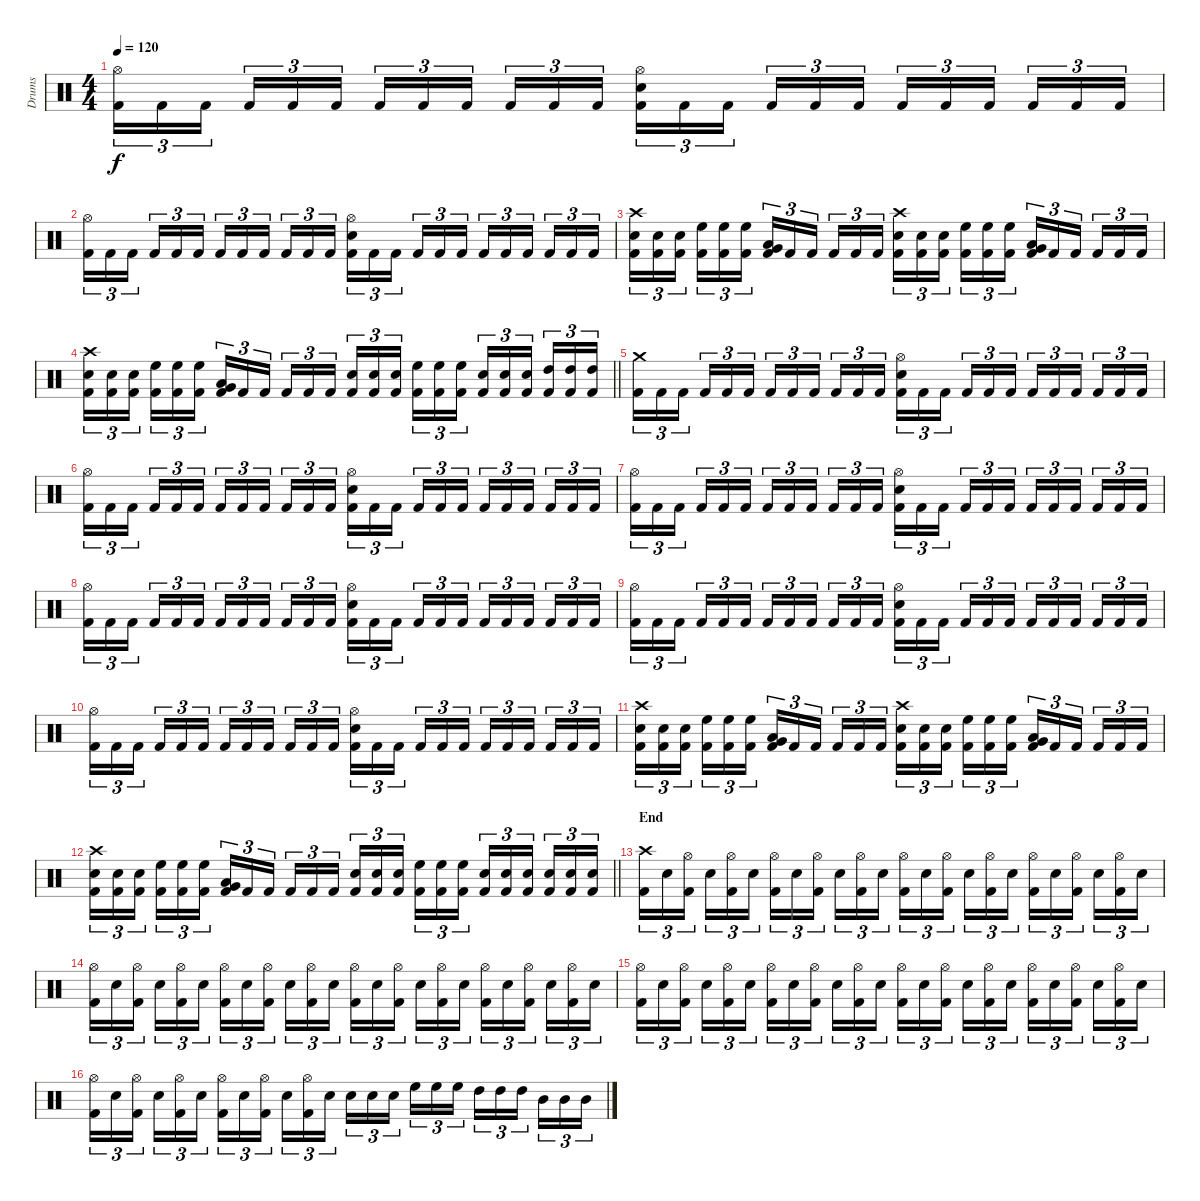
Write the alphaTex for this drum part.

\track ("Drums" "Drums") {instrument percussion}
\staff {score}
\articulation defaults
\ts (4 4)
\tempo 120
\clef neutral
\ks c
("Hi-Hat (open)" "Kick (hit) 2").16{tu (3 2) dy f} "Kick (hit) 2".16{tu (3 2)} "Kick (hit) 2".16{tu (3 2) beam splitsecondary} "Kick (hit) 2".16{tu (3 2)} "Kick (hit) 2".16{tu (3 2)} "Kick (hit) 2".16{tu (3 2)} "Kick (hit) 2".16{tu (3 2)} "Kick (hit) 2".16{tu (3 2)} "Kick (hit) 2".16{tu (3 2) beam splitsecondary} "Kick (hit) 2".16{tu (3 2)} "Kick (hit) 2".16{tu (3 2)} "Kick (hit) 2".16{tu (3 2)} ("Hi-Hat (open)" "Snare (hit) 2" "Kick (hit) 2").16{tu (3 2)} "Kick (hit) 2".16{tu (3 2)} "Kick (hit) 2".16{tu (3 2) beam splitsecondary} "Kick (hit) 2".16{tu (3 2)} "Kick (hit) 2".16{tu (3 2)} "Kick (hit) 2".16{tu (3 2)} "Kick (hit) 2".16{tu (3 2)} "Kick (hit) 2".16{tu (3 2)} "Kick (hit) 2".16{tu (3 2) beam splitsecondary} "Kick (hit) 2".16{tu (3 2)} "Kick (hit) 2".16{tu (3 2)} "Kick (hit) 2".16{tu (3 2)} |
("Hi-Hat (open)" "Kick (hit) 2").16{tu (3 2)} "Kick (hit) 2".16{tu (3 2)} "Kick (hit) 2".16{tu (3 2) beam splitsecondary} "Kick (hit) 2".16{tu (3 2)} "Kick (hit) 2".16{tu (3 2)} "Kick (hit) 2".16{tu (3 2)} "Kick (hit) 2".16{tu (3 2)} "Kick (hit) 2".16{tu (3 2)} "Kick (hit) 2".16{tu (3 2) beam splitsecondary} "Kick (hit) 2".16{tu (3 2)} "Kick (hit) 2".16{tu (3 2)} "Kick (hit) 2".16{tu (3 2)} ("Hi-Hat (open)" "Snare (hit) 2" "Kick (hit) 2").16{tu (3 2)} "Kick (hit) 2".16{tu (3 2)} "Kick (hit) 2".16{tu (3 2) beam splitsecondary} "Kick (hit) 2".16{tu (3 2)} "Kick (hit) 2".16{tu (3 2)} "Kick (hit) 2".16{tu (3 2)} "Kick (hit) 2".16{tu (3 2)} "Kick (hit) 2".16{tu (3 2)} "Kick (hit) 2".16{tu (3 2) beam splitsecondary} "Kick (hit) 2".16{tu (3 2)} "Kick (hit) 2".16{tu (3 2)} "Kick (hit) 2".16{tu (3 2)} |
("Crash high (hit)" "Snare (hit) 2" "Kick (hit) 2").16{tu (3 2)} ("Snare (hit) 2" "Kick (hit) 2").16{tu (3 2)} ("Snare (hit) 2" "Kick (hit) 2").16{tu (3 2) beam splitsecondary} ("High Floor Tom (hit)" "Kick (hit) 2").16{tu (3 2)} ("High Floor Tom (hit)" "Kick (hit) 2").16{tu (3 2)} ("High Floor Tom (hit)" "Kick (hit) 2").16{tu (3 2)} ("Low Tom (hit)" "Very Low Tom (hit)" "Kick (hit) 2").16{tu (3 2)} "Kick (hit) 2".16{tu (3 2)} "Kick (hit) 2".16{tu (3 2) beam splitsecondary} "Kick (hit) 2".16{tu (3 2)} "Kick (hit) 2".16{tu (3 2)} "Kick (hit) 2".16{tu (3 2)} ("Crash high (hit)" "Snare (hit) 2" "Kick (hit) 2").16{tu (3 2)} ("Snare (hit) 2" "Kick (hit) 2").16{tu (3 2)} ("Snare (hit) 2" "Kick (hit) 2").16{tu (3 2) beam splitsecondary} ("High Floor Tom (hit)" "Kick (hit) 2").16{tu (3 2)} ("High Floor Tom (hit)" "Kick (hit) 2").16{tu (3 2)} ("High Floor Tom (hit)" "Kick (hit) 2").16{tu (3 2)} ("Low Tom (hit)" "Very Low Tom (hit)" "Kick (hit) 2").16{tu (3 2)} "Kick (hit) 2".16{tu (3 2)} "Kick (hit) 2".16{tu (3 2) beam splitsecondary} "Kick (hit) 2".16{tu (3 2)} "Kick (hit) 2".16{tu (3 2)} "Kick (hit) 2".16{tu (3 2)} |
\barLineRight lightlight
("Crash high (hit)" "Snare (hit) 2" "Kick (hit) 2").16{tu (3 2)} ("Snare (hit) 2" "Kick (hit) 2").16{tu (3 2)} ("Snare (hit) 2" "Kick (hit) 2").16{tu (3 2) beam splitsecondary} ("High Floor Tom (hit)" "Kick (hit) 2").16{tu (3 2)} ("High Floor Tom (hit)" "Kick (hit) 2").16{tu (3 2)} ("High Floor Tom (hit)" "Kick (hit) 2").16{tu (3 2)} ("Low Tom (hit)" "Very Low Tom (hit)" "Kick (hit) 2").16{tu (3 2)} "Kick (hit) 2".16{tu (3 2)} "Kick (hit) 2".16{tu (3 2) beam splitsecondary} "Kick (hit) 2".16{tu (3 2)} "Kick (hit) 2".16{tu (3 2)} "Kick (hit) 2".16{tu (3 2)} ("Snare (hit) 2" "Kick (hit) 2").16{tu (3 2)} ("Snare (hit) 2" "Kick (hit) 2").16{tu (3 2)} ("Snare (hit) 2" "Kick (hit) 2").16{tu (3 2) beam splitsecondary} ("High Floor Tom (hit)" "Kick (hit) 2").16{tu (3 2)} ("High Floor Tom (hit)" "Kick (hit) 2").16{tu (3 2)} ("High Floor Tom (hit)" "Kick (hit) 2").16{tu (3 2)} ("Snare (hit) 2" "Kick (hit) 2").16{tu (3 2)} ("Snare (hit) 2" "Kick (hit) 2").16{tu (3 2)} ("Snare (hit) 2" "Kick (hit) 2").16{tu (3 2) beam splitsecondary} ("High Tom (hit)" "Kick (hit) 2").16{tu (3 2)} ("High Tom (hit)" "Kick (hit) 2").16{tu (3 2)} ("High Tom (hit)" "Kick (hit) 2").16{tu (3 2)} |
\section ("" "")
("Crash medium (hit)" "Kick (hit) 2").16{tu (3 2)} "Kick (hit) 2".16{tu (3 2)} "Kick (hit) 2".16{tu (3 2) beam splitsecondary} "Kick (hit) 2".16{tu (3 2)} "Kick (hit) 2".16{tu (3 2)} "Kick (hit) 2".16{tu (3 2)} "Kick (hit) 2".16{tu (3 2)} "Kick (hit) 2".16{tu (3 2)} "Kick (hit) 2".16{tu (3 2) beam splitsecondary} "Kick (hit) 2".16{tu (3 2)} "Kick (hit) 2".16{tu (3 2)} "Kick (hit) 2".16{tu (3 2)} ("Hi-Hat (open)" "Snare (hit) 2" "Kick (hit) 2").16{tu (3 2)} "Kick (hit) 2".16{tu (3 2)} "Kick (hit) 2".16{tu (3 2) beam splitsecondary} "Kick (hit) 2".16{tu (3 2)} "Kick (hit) 2".16{tu (3 2)} "Kick (hit) 2".16{tu (3 2)} "Kick (hit) 2".16{tu (3 2)} "Kick (hit) 2".16{tu (3 2)} "Kick (hit) 2".16{tu (3 2) beam splitsecondary} "Kick (hit) 2".16{tu (3 2)} "Kick (hit) 2".16{tu (3 2)} "Kick (hit) 2".16{tu (3 2)} |
("Hi-Hat (open)" "Kick (hit) 2").16{tu (3 2)} "Kick (hit) 2".16{tu (3 2)} "Kick (hit) 2".16{tu (3 2) beam splitsecondary} "Kick (hit) 2".16{tu (3 2)} "Kick (hit) 2".16{tu (3 2)} "Kick (hit) 2".16{tu (3 2)} "Kick (hit) 2".16{tu (3 2)} "Kick (hit) 2".16{tu (3 2)} "Kick (hit) 2".16{tu (3 2) beam splitsecondary} "Kick (hit) 2".16{tu (3 2)} "Kick (hit) 2".16{tu (3 2)} "Kick (hit) 2".16{tu (3 2)} ("Hi-Hat (open)" "Snare (hit) 2" "Kick (hit) 2").16{tu (3 2)} "Kick (hit) 2".16{tu (3 2)} "Kick (hit) 2".16{tu (3 2) beam splitsecondary} "Kick (hit) 2".16{tu (3 2)} "Kick (hit) 2".16{tu (3 2)} "Kick (hit) 2".16{tu (3 2)} "Kick (hit) 2".16{tu (3 2)} "Kick (hit) 2".16{tu (3 2)} "Kick (hit) 2".16{tu (3 2) beam splitsecondary} "Kick (hit) 2".16{tu (3 2)} "Kick (hit) 2".16{tu (3 2)} "Kick (hit) 2".16{tu (3 2)} |
("Hi-Hat (open)" "Kick (hit) 2").16{tu (3 2)} "Kick (hit) 2".16{tu (3 2)} "Kick (hit) 2".16{tu (3 2) beam splitsecondary} "Kick (hit) 2".16{tu (3 2)} "Kick (hit) 2".16{tu (3 2)} "Kick (hit) 2".16{tu (3 2)} "Kick (hit) 2".16{tu (3 2)} "Kick (hit) 2".16{tu (3 2)} "Kick (hit) 2".16{tu (3 2) beam splitsecondary} "Kick (hit) 2".16{tu (3 2)} "Kick (hit) 2".16{tu (3 2)} "Kick (hit) 2".16{tu (3 2)} ("Hi-Hat (open)" "Snare (hit) 2" "Kick (hit) 2").16{tu (3 2)} "Kick (hit) 2".16{tu (3 2)} "Kick (hit) 2".16{tu (3 2) beam splitsecondary} "Kick (hit) 2".16{tu (3 2)} "Kick (hit) 2".16{tu (3 2)} "Kick (hit) 2".16{tu (3 2)} "Kick (hit) 2".16{tu (3 2)} "Kick (hit) 2".16{tu (3 2)} "Kick (hit) 2".16{tu (3 2) beam splitsecondary} "Kick (hit) 2".16{tu (3 2)} "Kick (hit) 2".16{tu (3 2)} "Kick (hit) 2".16{tu (3 2)} |
("Hi-Hat (open)" "Kick (hit) 2").16{tu (3 2)} "Kick (hit) 2".16{tu (3 2)} "Kick (hit) 2".16{tu (3 2) beam splitsecondary} "Kick (hit) 2".16{tu (3 2)} "Kick (hit) 2".16{tu (3 2)} "Kick (hit) 2".16{tu (3 2)} "Kick (hit) 2".16{tu (3 2)} "Kick (hit) 2".16{tu (3 2)} "Kick (hit) 2".16{tu (3 2) beam splitsecondary} "Kick (hit) 2".16{tu (3 2)} "Kick (hit) 2".16{tu (3 2)} "Kick (hit) 2".16{tu (3 2)} ("Hi-Hat (open)" "Snare (hit) 2" "Kick (hit) 2").16{tu (3 2)} "Kick (hit) 2".16{tu (3 2)} "Kick (hit) 2".16{tu (3 2) beam splitsecondary} "Kick (hit) 2".16{tu (3 2)} "Kick (hit) 2".16{tu (3 2)} "Kick (hit) 2".16{tu (3 2)} "Kick (hit) 2".16{tu (3 2)} "Kick (hit) 2".16{tu (3 2)} "Kick (hit) 2".16{tu (3 2) beam splitsecondary} "Kick (hit) 2".16{tu (3 2)} "Kick (hit) 2".16{tu (3 2)} "Kick (hit) 2".16{tu (3 2)} |
("Hi-Hat (open)" "Kick (hit) 2").16{tu (3 2)} "Kick (hit) 2".16{tu (3 2)} "Kick (hit) 2".16{tu (3 2) beam splitsecondary} "Kick (hit) 2".16{tu (3 2)} "Kick (hit) 2".16{tu (3 2)} "Kick (hit) 2".16{tu (3 2)} "Kick (hit) 2".16{tu (3 2)} "Kick (hit) 2".16{tu (3 2)} "Kick (hit) 2".16{tu (3 2) beam splitsecondary} "Kick (hit) 2".16{tu (3 2)} "Kick (hit) 2".16{tu (3 2)} "Kick (hit) 2".16{tu (3 2)} ("Hi-Hat (open)" "Snare (hit) 2" "Kick (hit) 2").16{tu (3 2)} "Kick (hit) 2".16{tu (3 2)} "Kick (hit) 2".16{tu (3 2) beam splitsecondary} "Kick (hit) 2".16{tu (3 2)} "Kick (hit) 2".16{tu (3 2)} "Kick (hit) 2".16{tu (3 2)} "Kick (hit) 2".16{tu (3 2)} "Kick (hit) 2".16{tu (3 2)} "Kick (hit) 2".16{tu (3 2) beam splitsecondary} "Kick (hit) 2".16{tu (3 2)} "Kick (hit) 2".16{tu (3 2)} "Kick (hit) 2".16{tu (3 2)} |
("Hi-Hat (open)" "Kick (hit) 2").16{tu (3 2)} "Kick (hit) 2".16{tu (3 2)} "Kick (hit) 2".16{tu (3 2) beam splitsecondary} "Kick (hit) 2".16{tu (3 2)} "Kick (hit) 2".16{tu (3 2)} "Kick (hit) 2".16{tu (3 2)} "Kick (hit) 2".16{tu (3 2)} "Kick (hit) 2".16{tu (3 2)} "Kick (hit) 2".16{tu (3 2) beam splitsecondary} "Kick (hit) 2".16{tu (3 2)} "Kick (hit) 2".16{tu (3 2)} "Kick (hit) 2".16{tu (3 2)} ("Hi-Hat (open)" "Snare (hit) 2" "Kick (hit) 2").16{tu (3 2)} "Kick (hit) 2".16{tu (3 2)} "Kick (hit) 2".16{tu (3 2) beam splitsecondary} "Kick (hit) 2".16{tu (3 2)} "Kick (hit) 2".16{tu (3 2)} "Kick (hit) 2".16{tu (3 2)} "Kick (hit) 2".16{tu (3 2)} "Kick (hit) 2".16{tu (3 2)} "Kick (hit) 2".16{tu (3 2) beam splitsecondary} "Kick (hit) 2".16{tu (3 2)} "Kick (hit) 2".16{tu (3 2)} "Kick (hit) 2".16{tu (3 2)} |
("Crash high (hit)" "Snare (hit) 2" "Kick (hit) 2").16{tu (3 2)} ("Snare (hit) 2" "Kick (hit) 2").16{tu (3 2)} ("Snare (hit) 2" "Kick (hit) 2").16{tu (3 2) beam splitsecondary} ("High Floor Tom (hit)" "Kick (hit) 2").16{tu (3 2)} ("High Floor Tom (hit)" "Kick (hit) 2").16{tu (3 2)} ("High Floor Tom (hit)" "Kick (hit) 2").16{tu (3 2)} ("Low Tom (hit)" "Very Low Tom (hit)" "Kick (hit) 2").16{tu (3 2)} "Kick (hit) 2".16{tu (3 2)} "Kick (hit) 2".16{tu (3 2) beam splitsecondary} "Kick (hit) 2".16{tu (3 2)} "Kick (hit) 2".16{tu (3 2)} "Kick (hit) 2".16{tu (3 2)} ("Crash high (hit)" "Snare (hit) 2" "Kick (hit) 2").16{tu (3 2)} ("Snare (hit) 2" "Kick (hit) 2").16{tu (3 2)} ("Snare (hit) 2" "Kick (hit) 2").16{tu (3 2) beam splitsecondary} ("High Floor Tom (hit)" "Kick (hit) 2").16{tu (3 2)} ("High Floor Tom (hit)" "Kick (hit) 2").16{tu (3 2)} ("High Floor Tom (hit)" "Kick (hit) 2").16{tu (3 2)} ("Low Tom (hit)" "Very Low Tom (hit)" "Kick (hit) 2").16{tu (3 2)} "Kick (hit) 2".16{tu (3 2)} "Kick (hit) 2".16{tu (3 2) beam splitsecondary} "Kick (hit) 2".16{tu (3 2)} "Kick (hit) 2".16{tu (3 2)} "Kick (hit) 2".16{tu (3 2)} |
\barLineRight lightlight
("Crash high (hit)" "Snare (hit) 2" "Kick (hit) 2").16{tu (3 2)} ("Snare (hit) 2" "Kick (hit) 2").16{tu (3 2)} ("Snare (hit) 2" "Kick (hit) 2").16{tu (3 2) beam splitsecondary} ("High Floor Tom (hit)" "Kick (hit) 2").16{tu (3 2)} ("High Floor Tom (hit)" "Kick (hit) 2").16{tu (3 2)} ("High Floor Tom (hit)" "Kick (hit) 2").16{tu (3 2)} ("Low Tom (hit)" "Very Low Tom (hit)" "Kick (hit) 2").16{tu (3 2)} "Kick (hit) 2".16{tu (3 2)} "Kick (hit) 2".16{tu (3 2) beam splitsecondary} "Kick (hit) 2".16{tu (3 2)} "Kick (hit) 2".16{tu (3 2)} "Kick (hit) 2".16{tu (3 2)} ("Snare (hit) 2" "Kick (hit) 2").16{tu (3 2)} ("Snare (hit) 2" "Kick (hit) 2").16{tu (3 2)} ("Snare (hit) 2" "Kick (hit) 2").16{tu (3 2) beam splitsecondary} ("High Floor Tom (hit)" "Kick (hit) 2").16{tu (3 2)} ("High Floor Tom (hit)" "Kick (hit) 2").16{tu (3 2)} ("High Floor Tom (hit)" "Kick (hit) 2").16{tu (3 2)} ("Snare (hit) 2" "Kick (hit) 2").16{tu (3 2)} ("Snare (hit) 2" "Kick (hit) 2").16{tu (3 2)} ("Snare (hit) 2" "Kick (hit) 2").16{tu (3 2) beam splitsecondary} ("Snare (hit) 2" "Kick (hit) 2").16{tu (3 2)} ("Snare (hit) 2" "Kick (hit) 2").16{tu (3 2)} ("Snare (hit) 2" "Kick (hit) 2").16{tu (3 2)} |
\section ("" "End")
("Crash high (hit)" "Kick (hit) 2").16{tu (3 2)} "Snare (hit) 2".16{tu (3 2)} ("Hi-Hat (open)" "Kick (hit) 2").16{tu (3 2) beam splitsecondary} "Snare (hit) 2".16{tu (3 2)} ("Hi-Hat (open)" "Kick (hit) 2").16{tu (3 2)} "Snare (hit) 2".16{tu (3 2)} ("Hi-Hat (open)" "Kick (hit) 2").16{tu (3 2)} "Snare (hit) 2".16{tu (3 2)} ("Hi-Hat (open)" "Kick (hit) 2").16{tu (3 2) beam splitsecondary} "Snare (hit) 2".16{tu (3 2)} ("Hi-Hat (open)" "Kick (hit) 2").16{tu (3 2)} "Snare (hit) 2".16{tu (3 2)} ("Hi-Hat (open)" "Kick (hit) 2").16{tu (3 2)} "Snare (hit) 2".16{tu (3 2)} ("Hi-Hat (open)" "Kick (hit) 2").16{tu (3 2) beam splitsecondary} "Snare (hit) 2".16{tu (3 2)} ("Hi-Hat (open)" "Kick (hit) 2").16{tu (3 2)} "Snare (hit) 2".16{tu (3 2)} ("Hi-Hat (open)" "Kick (hit) 2").16{tu (3 2)} "Snare (hit) 2".16{tu (3 2)} ("Hi-Hat (open)" "Kick (hit) 2").16{tu (3 2) beam splitsecondary} "Snare (hit) 2".16{tu (3 2)} ("Hi-Hat (open)" "Kick (hit) 2").16{tu (3 2)} "Snare (hit) 2".16{tu (3 2)} |
("Hi-Hat (open)" "Kick (hit) 2").16{tu (3 2)} "Snare (hit) 2".16{tu (3 2)} ("Hi-Hat (open)" "Kick (hit) 2").16{tu (3 2) beam splitsecondary} "Snare (hit) 2".16{tu (3 2)} ("Hi-Hat (open)" "Kick (hit) 2").16{tu (3 2)} "Snare (hit) 2".16{tu (3 2)} ("Hi-Hat (open)" "Kick (hit) 2").16{tu (3 2)} "Snare (hit) 2".16{tu (3 2)} ("Hi-Hat (open)" "Kick (hit) 2").16{tu (3 2) beam splitsecondary} "Snare (hit) 2".16{tu (3 2)} ("Hi-Hat (open)" "Kick (hit) 2").16{tu (3 2)} "Snare (hit) 2".16{tu (3 2)} ("Hi-Hat (open)" "Kick (hit) 2").16{tu (3 2)} "Snare (hit) 2".16{tu (3 2)} ("Hi-Hat (open)" "Kick (hit) 2").16{tu (3 2) beam splitsecondary} "Snare (hit) 2".16{tu (3 2)} ("Hi-Hat (open)" "Kick (hit) 2").16{tu (3 2)} "Snare (hit) 2".16{tu (3 2)} ("Hi-Hat (open)" "Kick (hit) 2").16{tu (3 2)} "Snare (hit) 2".16{tu (3 2)} ("Hi-Hat (open)" "Kick (hit) 2").16{tu (3 2) beam splitsecondary} "Snare (hit) 2".16{tu (3 2)} ("Hi-Hat (open)" "Kick (hit) 2").16{tu (3 2)} "Snare (hit) 2".16{tu (3 2)} |
("Hi-Hat (open)" "Kick (hit) 2").16{tu (3 2)} "Snare (hit) 2".16{tu (3 2)} ("Hi-Hat (open)" "Kick (hit) 2").16{tu (3 2) beam splitsecondary} "Snare (hit) 2".16{tu (3 2)} ("Hi-Hat (open)" "Kick (hit) 2").16{tu (3 2)} "Snare (hit) 2".16{tu (3 2)} ("Hi-Hat (open)" "Kick (hit) 2").16{tu (3 2)} "Snare (hit) 2".16{tu (3 2)} ("Hi-Hat (open)" "Kick (hit) 2").16{tu (3 2) beam splitsecondary} "Snare (hit) 2".16{tu (3 2)} ("Hi-Hat (open)" "Kick (hit) 2").16{tu (3 2)} "Snare (hit) 2".16{tu (3 2)} ("Hi-Hat (open)" "Kick (hit) 2").16{tu (3 2)} "Snare (hit) 2".16{tu (3 2)} ("Hi-Hat (open)" "Kick (hit) 2").16{tu (3 2) beam splitsecondary} "Snare (hit) 2".16{tu (3 2)} ("Hi-Hat (open)" "Kick (hit) 2").16{tu (3 2)} "Snare (hit) 2".16{tu (3 2)} ("Hi-Hat (open)" "Kick (hit) 2").16{tu (3 2)} "Snare (hit) 2".16{tu (3 2)} ("Hi-Hat (open)" "Kick (hit) 2").16{tu (3 2) beam splitsecondary} "Snare (hit) 2".16{tu (3 2)} ("Hi-Hat (open)" "Kick (hit) 2").16{tu (3 2)} "Snare (hit) 2".16{tu (3 2)} |
("Hi-Hat (open)" "Kick (hit) 2").16{tu (3 2)} "Snare (hit) 2".16{tu (3 2)} ("Hi-Hat (open)" "Kick (hit) 2").16{tu (3 2) beam splitsecondary} "Snare (hit) 2".16{tu (3 2)} ("Hi-Hat (open)" "Kick (hit) 2").16{tu (3 2)} "Snare (hit) 2".16{tu (3 2)} ("Hi-Hat (open)" "Kick (hit) 2").16{tu (3 2)} "Snare (hit) 2".16{tu (3 2)} ("Hi-Hat (open)" "Kick (hit) 2").16{tu (3 2) beam splitsecondary} "Snare (hit) 2".16{tu (3 2)} ("Hi-Hat (open)" "Kick (hit) 2").16{tu (3 2)} "Snare (hit) 2".16{tu (3 2)} "Snare (hit) 2".16{tu (3 2)} "Snare (hit) 2".16{tu (3 2)} "Snare (hit) 2".16{tu (3 2) beam splitsecondary} "High Floor Tom (hit)".16{tu (3 2)} "High Floor Tom (hit)".16{tu (3 2)} "High Floor Tom (hit)".16{tu (3 2)} "High Tom (hit)".16{tu (3 2)} "High Tom (hit)".16{tu (3 2)} "High Tom (hit)".16{tu (3 2) beam splitsecondary} "Mid Tom (hit)".16{tu (3 2)} "Mid Tom (hit)".16{tu (3 2)} "Mid Tom (hit)".16{tu (3 2)}
